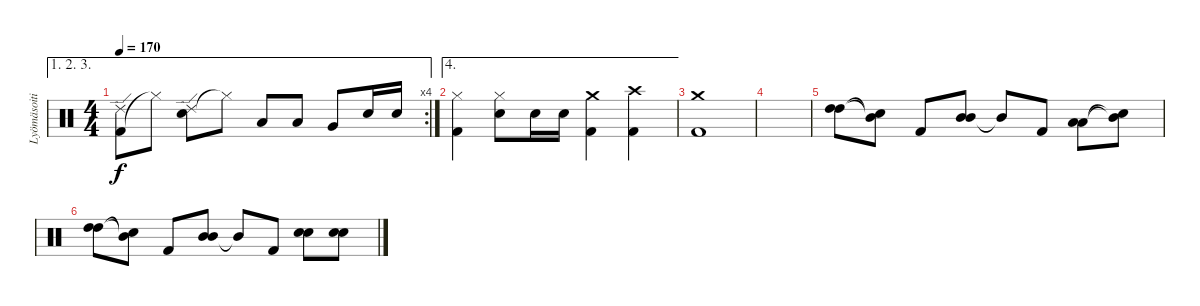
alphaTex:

\track ("Lyömäsoitin" "Lyömäsoiti") {instrument percussion}
\staff {score}
\articulation defaults
\ae (1 2 3)
\rc 4
\ts (4 4)
\tempo 170
\clef neutral
\ks c
("Kick (hit) 2" "Ride (edge) 2").8{dy f} "Hi-Hat (closed)"{t}.8 ("Electric Snare (hit)" "Ride (edge) 2").8 "Hi-Hat (closed)"{t}.8 "Low Tom (hit)".8 "Low Tom (hit)".8 "Very Low Tom (hit)".8 "Electric Snare (hit)".16 "Electric Snare (hit)".16 |
\ae 4
("Kick (hit) 2" "Hi-Hat (closed)").4 ("Electric Snare (hit)" "Hi-Hat (closed)").8 "Electric Snare (hit)".16 "Electric Snare (hit)".16 ("Crash medium (hit)" "Kick (hit) 2").4 ("Crash high (hit)" "Kick (hit) 2").4 |
("Kick (hit) 2" "Crash medium (hit)").1 |
|
("High Tom (hit)" "High Tom (hit)").8 ("Snare (hit)"{t} "Mid Tom (hit)"{t}).8 "Kick (hit) 2".8 ("Mid Tom (hit)" "Mid Tom (hit)").8 "Mid Tom (hit)"{t}.8 "Kick (hit) 2".8 ("Low Tom (hit)" "Low Tom (hit)").8 ("Snare (hit)"{t} "Mid Tom (hit)"{t}).8 |
("High Tom (hit)" "High Tom (hit)").8 ("Snare (hit)"{t} "Mid Tom (hit)"{t}).8 "Kick (hit) 2".8 ("Mid Tom (hit)" "Mid Tom (hit)").8 "Mid Tom (hit)"{t}.8 "Kick (hit) 2".8 ("Electric Snare (hit)" "Electric Snare (hit)").8 ("Electric Snare (hit)" "Electric Snare (hit)").8
